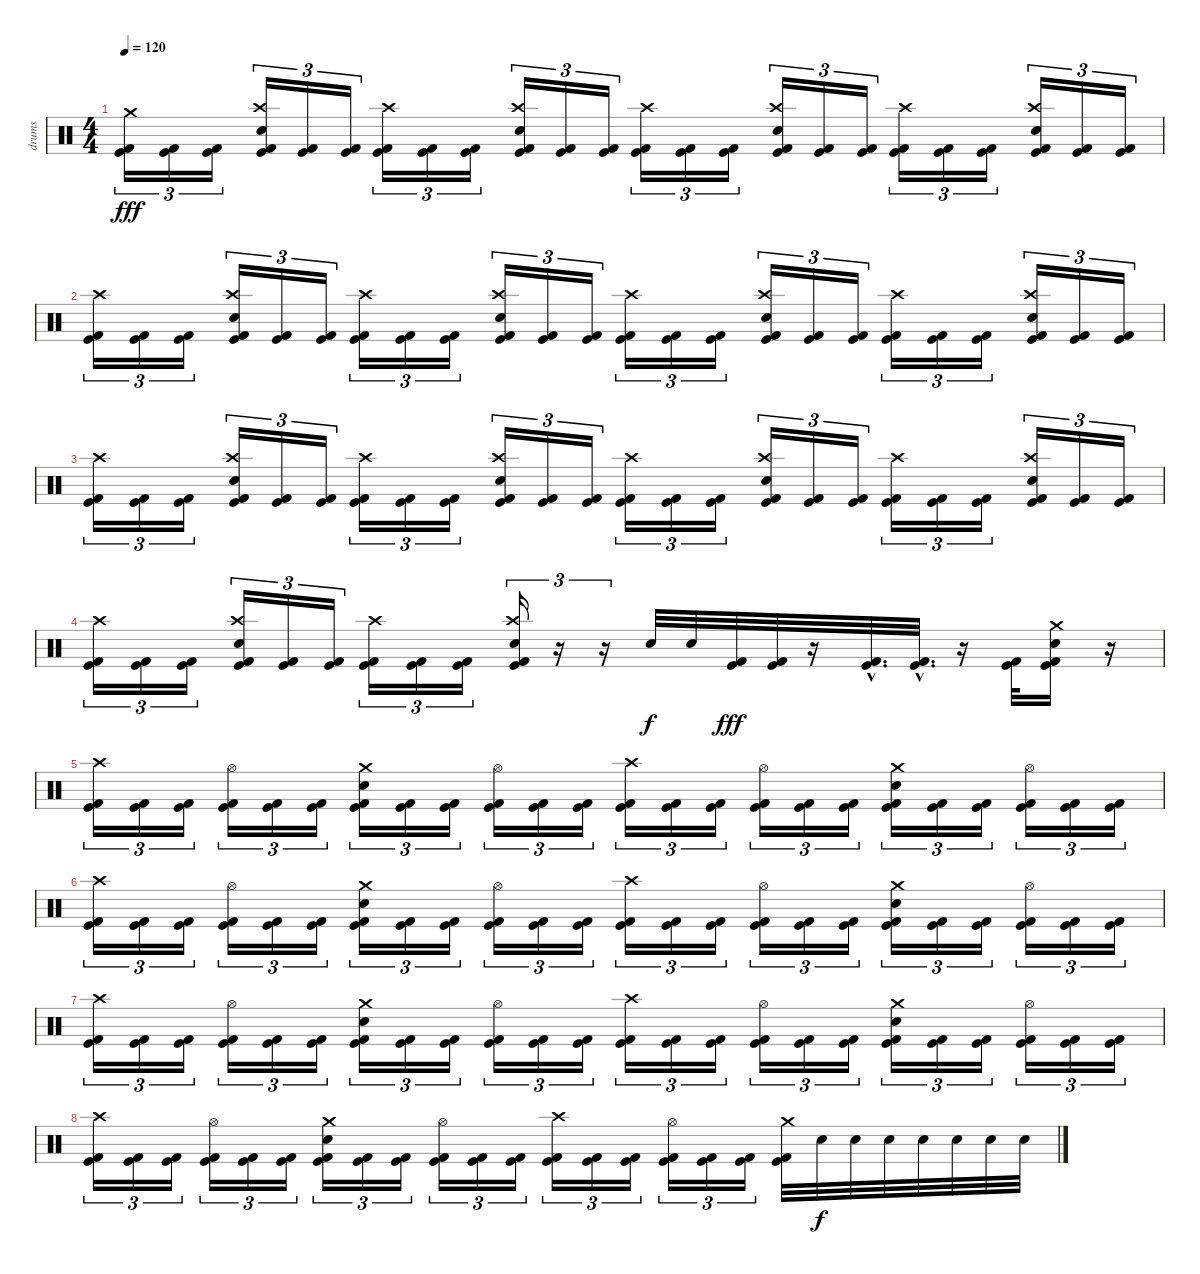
\track ("drums" "drums") {instrument percussion}
\staff {score}
\articulation defaults
\ts (4 4)
\tempo 120
\clef neutral
\ks c
("Crash medium (hit)" "Kick (hit)" "Kick (hit) 2").16{tu (3 2) dy fff} ("Kick (hit)" "Kick (hit) 2").16{tu (3 2)} ("Kick (hit)" "Kick (hit) 2").16{tu (3 2)} ("Crash high (hit)" "Electric Snare (hit)" "Kick (hit)" "Kick (hit) 2").16{tu (3 2)} ("Kick (hit)" "Kick (hit) 2").16{tu (3 2)} ("Kick (hit)" "Kick (hit) 2").16{tu (3 2)} ("Crash high (hit)" "Kick (hit)" "Kick (hit) 2").16{tu (3 2)} ("Kick (hit)" "Kick (hit) 2").16{tu (3 2)} ("Kick (hit)" "Kick (hit) 2").16{tu (3 2)} ("Crash high (hit)" "Electric Snare (hit)" "Kick (hit)" "Kick (hit) 2").16{tu (3 2)} ("Kick (hit)" "Kick (hit) 2").16{tu (3 2)} ("Kick (hit)" "Kick (hit) 2").16{tu (3 2)} ("Crash high (hit)" "Kick (hit)" "Kick (hit) 2").16{tu (3 2)} ("Kick (hit)" "Kick (hit) 2").16{tu (3 2)} ("Kick (hit)" "Kick (hit) 2").16{tu (3 2)} ("Crash high (hit)" "Electric Snare (hit)" "Kick (hit)" "Kick (hit) 2").16{tu (3 2)} ("Kick (hit)" "Kick (hit) 2").16{tu (3 2)} ("Kick (hit)" "Kick (hit) 2").16{tu (3 2)} ("Crash high (hit)" "Kick (hit)" "Kick (hit) 2").16{tu (3 2)} ("Kick (hit)" "Kick (hit) 2").16{tu (3 2)} ("Kick (hit)" "Kick (hit) 2").16{tu (3 2)} ("Crash high (hit)" "Electric Snare (hit)" "Kick (hit)" "Kick (hit) 2").16{tu (3 2)} ("Kick (hit)" "Kick (hit) 2").16{tu (3 2)} ("Kick (hit)" "Kick (hit) 2").16{tu (3 2)} |
("Crash high (hit)" "Kick (hit)" "Kick (hit) 2").16{tu (3 2)} ("Kick (hit)" "Kick (hit) 2").16{tu (3 2)} ("Kick (hit)" "Kick (hit) 2").16{tu (3 2)} ("Crash high (hit)" "Electric Snare (hit)" "Kick (hit)" "Kick (hit) 2").16{tu (3 2)} ("Kick (hit)" "Kick (hit) 2").16{tu (3 2)} ("Kick (hit)" "Kick (hit) 2").16{tu (3 2)} ("Crash high (hit)" "Kick (hit)" "Kick (hit) 2").16{tu (3 2)} ("Kick (hit)" "Kick (hit) 2").16{tu (3 2)} ("Kick (hit)" "Kick (hit) 2").16{tu (3 2)} ("Crash high (hit)" "Electric Snare (hit)" "Kick (hit)" "Kick (hit) 2").16{tu (3 2)} ("Kick (hit)" "Kick (hit) 2").16{tu (3 2)} ("Kick (hit)" "Kick (hit) 2").16{tu (3 2)} ("Crash high (hit)" "Kick (hit)" "Kick (hit) 2").16{tu (3 2)} ("Kick (hit)" "Kick (hit) 2").16{tu (3 2)} ("Kick (hit)" "Kick (hit) 2").16{tu (3 2)} ("Crash high (hit)" "Electric Snare (hit)" "Kick (hit)" "Kick (hit) 2").16{tu (3 2)} ("Kick (hit)" "Kick (hit) 2").16{tu (3 2)} ("Kick (hit)" "Kick (hit) 2").16{tu (3 2)} ("Crash high (hit)" "Kick (hit)" "Kick (hit) 2").16{tu (3 2)} ("Kick (hit)" "Kick (hit) 2").16{tu (3 2)} ("Kick (hit)" "Kick (hit) 2").16{tu (3 2)} ("Crash high (hit)" "Electric Snare (hit)" "Kick (hit)" "Kick (hit) 2").16{tu (3 2)} ("Kick (hit)" "Kick (hit) 2").16{tu (3 2)} ("Kick (hit)" "Kick (hit) 2").16{tu (3 2)} |
("Crash high (hit)" "Kick (hit)" "Kick (hit) 2").16{tu (3 2)} ("Kick (hit)" "Kick (hit) 2").16{tu (3 2)} ("Kick (hit)" "Kick (hit) 2").16{tu (3 2)} ("Crash high (hit)" "Electric Snare (hit)" "Kick (hit)" "Kick (hit) 2").16{tu (3 2)} ("Kick (hit)" "Kick (hit) 2").16{tu (3 2)} ("Kick (hit)" "Kick (hit) 2").16{tu (3 2)} ("Crash high (hit)" "Kick (hit)" "Kick (hit) 2").16{tu (3 2)} ("Kick (hit)" "Kick (hit) 2").16{tu (3 2)} ("Kick (hit)" "Kick (hit) 2").16{tu (3 2)} ("Crash high (hit)" "Electric Snare (hit)" "Kick (hit)" "Kick (hit) 2").16{tu (3 2)} ("Kick (hit)" "Kick (hit) 2").16{tu (3 2)} ("Kick (hit)" "Kick (hit) 2").16{tu (3 2)} ("Crash high (hit)" "Kick (hit)" "Kick (hit) 2").16{tu (3 2)} ("Kick (hit)" "Kick (hit) 2").16{tu (3 2)} ("Kick (hit)" "Kick (hit) 2").16{tu (3 2)} ("Crash high (hit)" "Electric Snare (hit)" "Kick (hit)" "Kick (hit) 2").16{tu (3 2)} ("Kick (hit)" "Kick (hit) 2").16{tu (3 2)} ("Kick (hit)" "Kick (hit) 2").16{tu (3 2)} ("Crash high (hit)" "Kick (hit)" "Kick (hit) 2").16{tu (3 2)} ("Kick (hit)" "Kick (hit) 2").16{tu (3 2)} ("Kick (hit)" "Kick (hit) 2").16{tu (3 2)} ("Crash high (hit)" "Electric Snare (hit)" "Kick (hit)" "Kick (hit) 2").16{tu (3 2)} ("Kick (hit)" "Kick (hit) 2").16{tu (3 2)} ("Kick (hit)" "Kick (hit) 2").16{tu (3 2)} |
("Crash high (hit)" "Kick (hit)" "Kick (hit) 2").16{tu (3 2)} ("Kick (hit)" "Kick (hit) 2").16{tu (3 2)} ("Kick (hit)" "Kick (hit) 2").16{tu (3 2)} ("Crash high (hit)" "Electric Snare (hit)" "Kick (hit)" "Kick (hit) 2").16{tu (3 2)} ("Kick (hit)" "Kick (hit) 2").16{tu (3 2)} ("Kick (hit)" "Kick (hit) 2").16{tu (3 2)} ("Crash high (hit)" "Kick (hit)" "Kick (hit) 2").16{tu (3 2)} ("Kick (hit)" "Kick (hit) 2").16{tu (3 2)} ("Kick (hit)" "Kick (hit) 2").16{tu (3 2)} ("Crash high (hit)" "Electric Snare (hit)" "Kick (hit)" "Kick (hit) 2").16{tu (3 2)} r.16{tu (3 2)} r.16{tu (3 2)} "Electric Snare (hit)".32{dy f} "Electric Snare (hit)".32 ("Kick (hit)" "Kick (hit) 2").32{dy fff} ("Kick (hit)" "Kick (hit) 2").32 r.16 ("Kick (hit)" "Kick (hit) 2"{hac}).32{d} ("Kick (hit)" "Kick (hit) 2"{hac}).32{d} r.16 ("Kick (hit)" "Kick (hit) 2").32 ("Crash medium (hit)" "Electric Snare (hit)" "Kick (hit)" "Kick (hit) 2").16 r.16 |
("Crash high (hit)" "Kick (hit)" "Kick (hit) 2").16{tu (3 2)} ("Kick (hit)" "Kick (hit) 2").16{tu (3 2)} ("Kick (hit)" "Kick (hit) 2").16{tu (3 2)} ("Hi-Hat (open)" "Kick (hit)" "Kick (hit) 2").16{tu (3 2)} ("Kick (hit)" "Kick (hit) 2").16{tu (3 2)} ("Kick (hit)" "Kick (hit) 2").16{tu (3 2)} ("Crash medium (hit)" "Electric Snare (hit)" "Kick (hit)" "Kick (hit) 2").16{tu (3 2)} ("Kick (hit)" "Kick (hit) 2").16{tu (3 2)} ("Kick (hit)" "Kick (hit) 2").16{tu (3 2)} ("Hi-Hat (open)" "Kick (hit)" "Kick (hit) 2").16{tu (3 2)} ("Kick (hit)" "Kick (hit) 2").16{tu (3 2)} ("Kick (hit)" "Kick (hit) 2").16{tu (3 2)} ("Crash high (hit)" "Kick (hit)" "Kick (hit) 2").16{tu (3 2)} ("Kick (hit)" "Kick (hit) 2").16{tu (3 2)} ("Kick (hit)" "Kick (hit) 2").16{tu (3 2)} ("Hi-Hat (open)" "Kick (hit)" "Kick (hit) 2").16{tu (3 2)} ("Kick (hit)" "Kick (hit) 2").16{tu (3 2)} ("Kick (hit)" "Kick (hit) 2").16{tu (3 2)} ("Crash medium (hit)" "Electric Snare (hit)" "Kick (hit)" "Kick (hit) 2").16{tu (3 2)} ("Kick (hit)" "Kick (hit) 2").16{tu (3 2)} ("Kick (hit)" "Kick (hit) 2").16{tu (3 2)} ("Hi-Hat (open)" "Kick (hit)" "Kick (hit) 2").16{tu (3 2)} ("Kick (hit)" "Kick (hit) 2").16{tu (3 2)} ("Kick (hit)" "Kick (hit) 2").16{tu (3 2)} |
("Crash high (hit)" "Kick (hit)" "Kick (hit) 2").16{tu (3 2)} ("Kick (hit)" "Kick (hit) 2").16{tu (3 2)} ("Kick (hit)" "Kick (hit) 2").16{tu (3 2)} ("Hi-Hat (open)" "Kick (hit)" "Kick (hit) 2").16{tu (3 2)} ("Kick (hit)" "Kick (hit) 2").16{tu (3 2)} ("Kick (hit)" "Kick (hit) 2").16{tu (3 2)} ("Crash medium (hit)" "Electric Snare (hit)" "Kick (hit)" "Kick (hit) 2").16{tu (3 2)} ("Kick (hit)" "Kick (hit) 2").16{tu (3 2)} ("Kick (hit)" "Kick (hit) 2").16{tu (3 2)} ("Hi-Hat (open)" "Kick (hit)" "Kick (hit) 2").16{tu (3 2)} ("Kick (hit)" "Kick (hit) 2").16{tu (3 2)} ("Kick (hit)" "Kick (hit) 2").16{tu (3 2)} ("Crash high (hit)" "Kick (hit)" "Kick (hit) 2").16{tu (3 2)} ("Kick (hit)" "Kick (hit) 2").16{tu (3 2)} ("Kick (hit)" "Kick (hit) 2").16{tu (3 2)} ("Hi-Hat (open)" "Kick (hit)" "Kick (hit) 2").16{tu (3 2)} ("Kick (hit)" "Kick (hit) 2").16{tu (3 2)} ("Kick (hit)" "Kick (hit) 2").16{tu (3 2)} ("Crash medium (hit)" "Electric Snare (hit)" "Kick (hit)" "Kick (hit) 2").16{tu (3 2)} ("Kick (hit)" "Kick (hit) 2").16{tu (3 2)} ("Kick (hit)" "Kick (hit) 2").16{tu (3 2)} ("Hi-Hat (open)" "Kick (hit)" "Kick (hit) 2").16{tu (3 2)} ("Kick (hit)" "Kick (hit) 2").16{tu (3 2)} ("Kick (hit)" "Kick (hit) 2").16{tu (3 2)} |
("Crash high (hit)" "Kick (hit)" "Kick (hit) 2").16{tu (3 2)} ("Kick (hit)" "Kick (hit) 2").16{tu (3 2)} ("Kick (hit)" "Kick (hit) 2").16{tu (3 2)} ("Hi-Hat (open)" "Kick (hit)" "Kick (hit) 2").16{tu (3 2)} ("Kick (hit)" "Kick (hit) 2").16{tu (3 2)} ("Kick (hit)" "Kick (hit) 2").16{tu (3 2)} ("Crash medium (hit)" "Electric Snare (hit)" "Kick (hit)" "Kick (hit) 2").16{tu (3 2)} ("Kick (hit)" "Kick (hit) 2").16{tu (3 2)} ("Kick (hit)" "Kick (hit) 2").16{tu (3 2)} ("Hi-Hat (open)" "Kick (hit)" "Kick (hit) 2").16{tu (3 2)} ("Kick (hit)" "Kick (hit) 2").16{tu (3 2)} ("Kick (hit)" "Kick (hit) 2").16{tu (3 2)} ("Crash high (hit)" "Kick (hit)" "Kick (hit) 2").16{tu (3 2)} ("Kick (hit)" "Kick (hit) 2").16{tu (3 2)} ("Kick (hit)" "Kick (hit) 2").16{tu (3 2)} ("Hi-Hat (open)" "Kick (hit)" "Kick (hit) 2").16{tu (3 2)} ("Kick (hit)" "Kick (hit) 2").16{tu (3 2)} ("Kick (hit)" "Kick (hit) 2").16{tu (3 2)} ("Crash medium (hit)" "Electric Snare (hit)" "Kick (hit)" "Kick (hit) 2").16{tu (3 2)} ("Kick (hit)" "Kick (hit) 2").16{tu (3 2)} ("Kick (hit)" "Kick (hit) 2").16{tu (3 2)} ("Hi-Hat (open)" "Kick (hit)" "Kick (hit) 2").16{tu (3 2)} ("Kick (hit)" "Kick (hit) 2").16{tu (3 2)} ("Kick (hit)" "Kick (hit) 2").16{tu (3 2)} |
("Crash high (hit)" "Kick (hit)" "Kick (hit) 2").16{tu (3 2)} ("Kick (hit)" "Kick (hit) 2").16{tu (3 2)} ("Kick (hit)" "Kick (hit) 2").16{tu (3 2)} ("Hi-Hat (open)" "Kick (hit)" "Kick (hit) 2").16{tu (3 2)} ("Kick (hit)" "Kick (hit) 2").16{tu (3 2)} ("Kick (hit)" "Kick (hit) 2").16{tu (3 2)} ("Crash medium (hit)" "Electric Snare (hit)" "Kick (hit)" "Kick (hit) 2").16{tu (3 2)} ("Kick (hit)" "Kick (hit) 2").16{tu (3 2)} ("Kick (hit)" "Kick (hit) 2").16{tu (3 2)} ("Hi-Hat (open)" "Kick (hit)" "Kick (hit) 2").16{tu (3 2)} ("Kick (hit)" "Kick (hit) 2").16{tu (3 2)} ("Kick (hit)" "Kick (hit) 2").16{tu (3 2)} ("Crash high (hit)" "Kick (hit)" "Kick (hit) 2").16{tu (3 2)} ("Kick (hit)" "Kick (hit) 2").16{tu (3 2)} ("Kick (hit)" "Kick (hit) 2").16{tu (3 2)} ("Hi-Hat (open)" "Kick (hit)" "Kick (hit) 2").16{tu (3 2)} ("Kick (hit)" "Kick (hit) 2").16{tu (3 2)} ("Kick (hit)" "Kick (hit) 2").16{tu (3 2)} ("Crash medium (hit)" "Kick (hit)" "Kick (hit) 2").32 "Electric Snare (hit)".32{dy f} "Electric Snare (hit)".32 "Electric Snare (hit)".32 "Electric Snare (hit)".32 "Electric Snare (hit)".32 "Electric Snare (hit)".32 "Electric Snare (hit)".32
